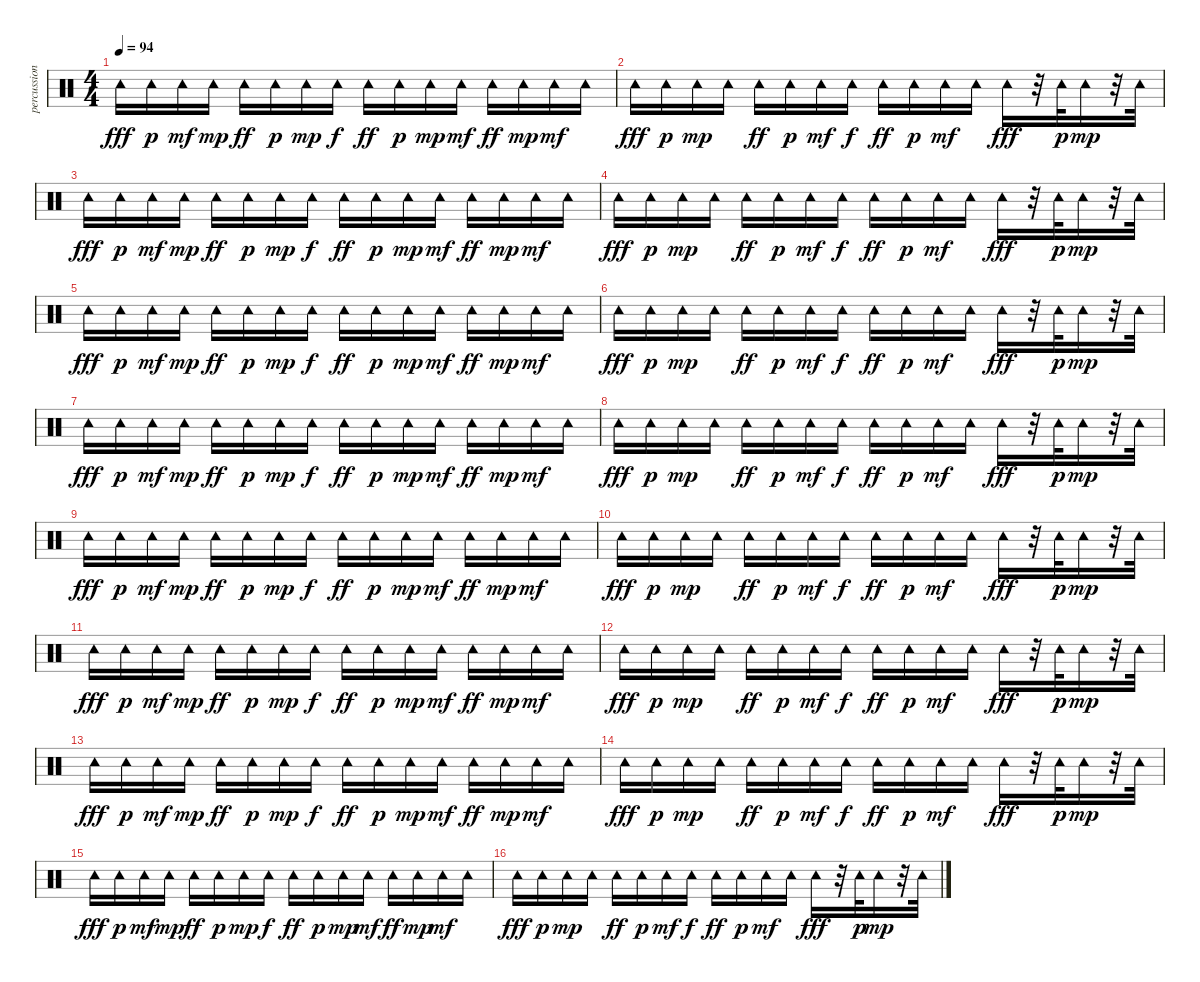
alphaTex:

\track ("percussion" "percussion") {instrument percussion}
\staff {score}
\articulation defaults
\ts (4 4)
\tempo 94
\clef neutral
\ks c "Tambourine (hit)".16{dy fff} "Tambourine (hit)".16{dy p} "Tambourine (hit)".16{dy mf} "Tambourine (hit)".16{dy mp} "Tambourine (hit)".16{dy ff} "Tambourine (hit)".16{dy p} "Tambourine (hit)".16{dy mp} "Tambourine (hit)".16{dy f} "Tambourine (hit)".16{dy ff} "Tambourine (hit)".16{dy p} "Tambourine (hit)".16{dy mp} "Tambourine (hit)".16{dy mf} "Tambourine (hit)".16{dy ff} "Tambourine (hit)".16{dy mp} "Tambourine (hit)".16{dy mf} "Tambourine (hit)".16
|
"Tambourine (hit)".16{dy fff} "Tambourine (hit)".16{dy p} "Tambourine (hit)".16{dy mp} "Tambourine (hit)".16 "Tambourine (hit)".16{dy ff} "Tambourine (hit)".16{dy p} "Tambourine (hit)".16{dy mf} "Tambourine (hit)".16{dy f} "Tambourine (hit)".16{dy ff} "Tambourine (hit)".16{dy p} "Tambourine (hit)".16{dy mf} "Tambourine (hit)".16 "Tambourine (hit)".16{dy fff} r.32 "Tambourine (hit)".32{dy p} "Tambourine (hit)".16{dy mp} r.32 "Tambourine (hit)".32 |
"Tambourine (hit)".16{dy fff} "Tambourine (hit)".16{dy p} "Tambourine (hit)".16{dy mf} "Tambourine (hit)".16{dy mp} "Tambourine (hit)".16{dy ff} "Tambourine (hit)".16{dy p} "Tambourine (hit)".16{dy mp} "Tambourine (hit)".16{dy f} "Tambourine (hit)".16{dy ff} "Tambourine (hit)".16{dy p} "Tambourine (hit)".16{dy mp} "Tambourine (hit)".16{dy mf} "Tambourine (hit)".16{dy ff} "Tambourine (hit)".16{dy mp} "Tambourine (hit)".16{dy mf} "Tambourine (hit)".16 |
"Tambourine (hit)".16{dy fff} "Tambourine (hit)".16{dy p} "Tambourine (hit)".16{dy mp} "Tambourine (hit)".16 "Tambourine (hit)".16{dy ff} "Tambourine (hit)".16{dy p} "Tambourine (hit)".16{dy mf} "Tambourine (hit)".16{dy f} "Tambourine (hit)".16{dy ff} "Tambourine (hit)".16{dy p} "Tambourine (hit)".16{dy mf} "Tambourine (hit)".16 "Tambourine (hit)".16{dy fff} r.32 "Tambourine (hit)".32{dy p} "Tambourine (hit)".16{dy mp} r.32 "Tambourine (hit)".32 |
"Tambourine (hit)".16{dy fff} "Tambourine (hit)".16{dy p} "Tambourine (hit)".16{dy mf} "Tambourine (hit)".16{dy mp} "Tambourine (hit)".16{dy ff} "Tambourine (hit)".16{dy p} "Tambourine (hit)".16{dy mp} "Tambourine (hit)".16{dy f} "Tambourine (hit)".16{dy ff} "Tambourine (hit)".16{dy p} "Tambourine (hit)".16{dy mp} "Tambourine (hit)".16{dy mf} "Tambourine (hit)".16{dy ff} "Tambourine (hit)".16{dy mp} "Tambourine (hit)".16{dy mf} "Tambourine (hit)".16 |
"Tambourine (hit)".16{dy fff} "Tambourine (hit)".16{dy p} "Tambourine (hit)".16{dy mp} "Tambourine (hit)".16 "Tambourine (hit)".16{dy ff} "Tambourine (hit)".16{dy p} "Tambourine (hit)".16{dy mf} "Tambourine (hit)".16{dy f} "Tambourine (hit)".16{dy ff} "Tambourine (hit)".16{dy p} "Tambourine (hit)".16{dy mf} "Tambourine (hit)".16 "Tambourine (hit)".16{dy fff} r.32 "Tambourine (hit)".32{dy p} "Tambourine (hit)".16{dy mp} r.32 "Tambourine (hit)".32 |
"Tambourine (hit)".16{dy fff} "Tambourine (hit)".16{dy p} "Tambourine (hit)".16{dy mf} "Tambourine (hit)".16{dy mp} "Tambourine (hit)".16{dy ff} "Tambourine (hit)".16{dy p} "Tambourine (hit)".16{dy mp} "Tambourine (hit)".16{dy f} "Tambourine (hit)".16{dy ff} "Tambourine (hit)".16{dy p} "Tambourine (hit)".16{dy mp} "Tambourine (hit)".16{dy mf} "Tambourine (hit)".16{dy ff} "Tambourine (hit)".16{dy mp} "Tambourine (hit)".16{dy mf} "Tambourine (hit)".16 |
"Tambourine (hit)".16{dy fff} "Tambourine (hit)".16{dy p} "Tambourine (hit)".16{dy mp} "Tambourine (hit)".16 "Tambourine (hit)".16{dy ff} "Tambourine (hit)".16{dy p} "Tambourine (hit)".16{dy mf} "Tambourine (hit)".16{dy f} "Tambourine (hit)".16{dy ff} "Tambourine (hit)".16{dy p} "Tambourine (hit)".16{dy mf} "Tambourine (hit)".16 "Tambourine (hit)".16{dy fff} r.32 "Tambourine (hit)".32{dy p} "Tambourine (hit)".16{dy mp} r.32 "Tambourine (hit)".32 |
"Tambourine (hit)".16{dy fff} "Tambourine (hit)".16{dy p} "Tambourine (hit)".16{dy mf} "Tambourine (hit)".16{dy mp} "Tambourine (hit)".16{dy ff} "Tambourine (hit)".16{dy p} "Tambourine (hit)".16{dy mp} "Tambourine (hit)".16{dy f} "Tambourine (hit)".16{dy ff} "Tambourine (hit)".16{dy p} "Tambourine (hit)".16{dy mp} "Tambourine (hit)".16{dy mf} "Tambourine (hit)".16{dy ff} "Tambourine (hit)".16{dy mp} "Tambourine (hit)".16{dy mf} "Tambourine (hit)".16 |
"Tambourine (hit)".16{dy fff} "Tambourine (hit)".16{dy p} "Tambourine (hit)".16{dy mp} "Tambourine (hit)".16 "Tambourine (hit)".16{dy ff} "Tambourine (hit)".16{dy p} "Tambourine (hit)".16{dy mf} "Tambourine (hit)".16{dy f} "Tambourine (hit)".16{dy ff} "Tambourine (hit)".16{dy p} "Tambourine (hit)".16{dy mf} "Tambourine (hit)".16 "Tambourine (hit)".16{dy fff} r.32 "Tambourine (hit)".32{dy p} "Tambourine (hit)".16{dy mp} r.32 "Tambourine (hit)".32 |
"Tambourine (hit)".16{dy fff} "Tambourine (hit)".16{dy p} "Tambourine (hit)".16{dy mf} "Tambourine (hit)".16{dy mp} "Tambourine (hit)".16{dy ff} "Tambourine (hit)".16{dy p} "Tambourine (hit)".16{dy mp} "Tambourine (hit)".16{dy f} "Tambourine (hit)".16{dy ff} "Tambourine (hit)".16{dy p} "Tambourine (hit)".16{dy mp} "Tambourine (hit)".16{dy mf} "Tambourine (hit)".16{dy ff} "Tambourine (hit)".16{dy mp} "Tambourine (hit)".16{dy mf} "Tambourine (hit)".16 |
"Tambourine (hit)".16{dy fff} "Tambourine (hit)".16{dy p} "Tambourine (hit)".16{dy mp} "Tambourine (hit)".16 "Tambourine (hit)".16{dy ff} "Tambourine (hit)".16{dy p} "Tambourine (hit)".16{dy mf} "Tambourine (hit)".16{dy f} "Tambourine (hit)".16{dy ff} "Tambourine (hit)".16{dy p} "Tambourine (hit)".16{dy mf} "Tambourine (hit)".16 "Tambourine (hit)".16{dy fff} r.32 "Tambourine (hit)".32{dy p} "Tambourine (hit)".16{dy mp} r.32 "Tambourine (hit)".32 |
"Tambourine (hit)".16{dy fff} "Tambourine (hit)".16{dy p} "Tambourine (hit)".16{dy mf} "Tambourine (hit)".16{dy mp} "Tambourine (hit)".16{dy ff} "Tambourine (hit)".16{dy p} "Tambourine (hit)".16{dy mp} "Tambourine (hit)".16{dy f} "Tambourine (hit)".16{dy ff} "Tambourine (hit)".16{dy p} "Tambourine (hit)".16{dy mp} "Tambourine (hit)".16{dy mf} "Tambourine (hit)".16{dy ff} "Tambourine (hit)".16{dy mp} "Tambourine (hit)".16{dy mf} "Tambourine (hit)".16 |
"Tambourine (hit)".16{dy fff} "Tambourine (hit)".16{dy p} "Tambourine (hit)".16{dy mp} "Tambourine (hit)".16 "Tambourine (hit)".16{dy ff} "Tambourine (hit)".16{dy p} "Tambourine (hit)".16{dy mf} "Tambourine (hit)".16{dy f} "Tambourine (hit)".16{dy ff} "Tambourine (hit)".16{dy p} "Tambourine (hit)".16{dy mf} "Tambourine (hit)".16 "Tambourine (hit)".16{dy fff} r.32 "Tambourine (hit)".32{dy p} "Tambourine (hit)".16{dy mp} r.32 "Tambourine (hit)".32 |
"Tambourine (hit)".16{dy fff} "Tambourine (hit)".16{dy p} "Tambourine (hit)".16{dy mf} "Tambourine (hit)".16{dy mp} "Tambourine (hit)".16{dy ff} "Tambourine (hit)".16{dy p} "Tambourine (hit)".16{dy mp} "Tambourine (hit)".16{dy f} "Tambourine (hit)".16{dy ff} "Tambourine (hit)".16{dy p} "Tambourine (hit)".16{dy mp} "Tambourine (hit)".16{dy mf} "Tambourine (hit)".16{dy ff} "Tambourine (hit)".16{dy mp} "Tambourine (hit)".16{dy mf} "Tambourine (hit)".16 |
"Tambourine (hit)".16{dy fff} "Tambourine (hit)".16{dy p} "Tambourine (hit)".16{dy mp} "Tambourine (hit)".16 "Tambourine (hit)".16{dy ff} "Tambourine (hit)".16{dy p} "Tambourine (hit)".16{dy mf} "Tambourine (hit)".16{dy f} "Tambourine (hit)".16{dy ff} "Tambourine (hit)".16{dy p} "Tambourine (hit)".16{dy mf} "Tambourine (hit)".16 "Tambourine (hit)".16{dy fff} r.32 "Tambourine (hit)".32{dy p} "Tambourine (hit)".16{dy mp} r.32 "Tambourine (hit)".32
